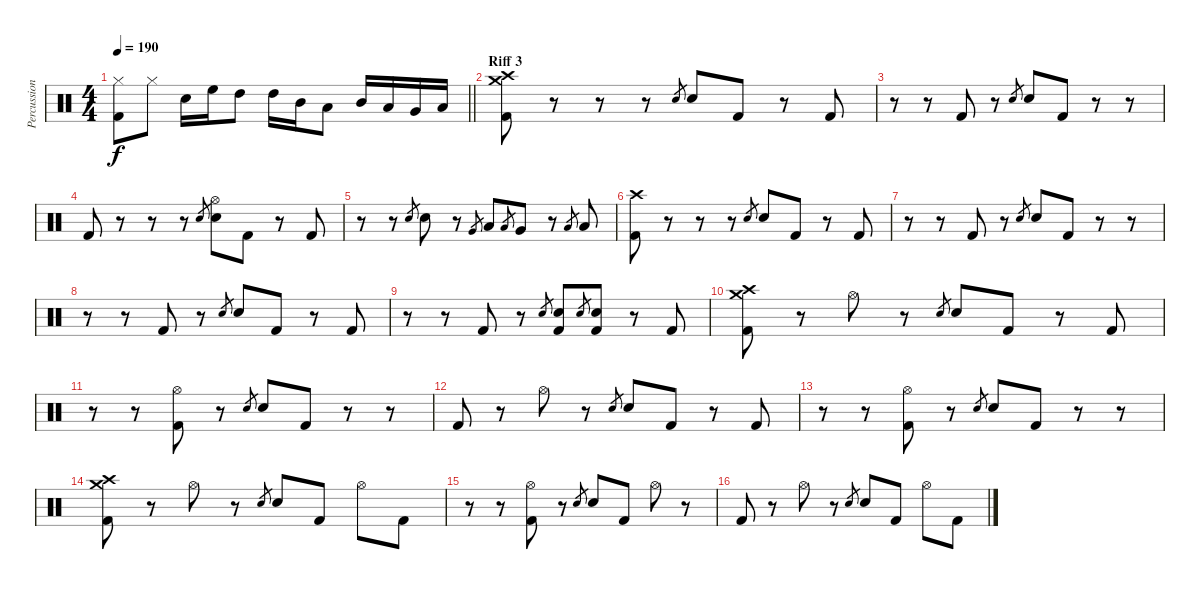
\track ("Percussion" "Percussion") {instrument percussion}
\staff {score}
\articulation defaults
\ts (4 4)
\tempo 190
\clef neutral
\barLineRight lightlight
\ks c
("Hi-Hat (closed)" "Kick (hit) 2").8{dy f} "Hi-Hat (closed)".8 "Electric Snare (hit)".16 "High Floor Tom (hit)".16 "High Tom (hit)".8 "High Tom (hit)".16 "Mid Tom (hit)".16 "Low Tom (hit)".8 "Mid Tom (hit)".16 "Low Tom (hit)".16 "Very Low Tom (hit)".16 "Low Floor Tom (hit)".16 |
\section ("" "Riff 3")
("Crash medium (hit)" "Crash high (hit)" "Kick (hit) 2").8 r.8 r.8 r.8 "Electric Snare (hit)".8{gr} "Electric Snare (hit)".8 "Kick (hit) 2".8 r.8 "Kick (hit) 2".8 |
r.8 r.8 "Kick (hit) 2".8 r.8 "Electric Snare (hit)".8{gr} "Electric Snare (hit)".8 "Kick (hit) 2".8 r.8 r.8 |
"Kick (hit) 2".8 r.8 r.8 r.8 "Electric Snare (hit)".8{gr} ("Hi-Hat (open)" "Electric Snare (hit)").8 "Kick (hit) 2".8 r.8 "Kick (hit) 2".8 |
r.8 r.8 "Electric Snare (hit)".8{gr} "Electric Snare (hit)".8 r.8 "Very Low Tom (hit)".8{gr} "Low Tom (hit)".8 "Low Floor Tom (hit)".8{gr} "Very Low Tom (hit)".8 r.8 "Low Floor Tom (hit)".8{gr} "Low Floor Tom (hit)".8 |
("Crash high (hit)" "Kick (hit) 2").8 r.8 r.8 r.8 "Electric Snare (hit)".8{gr} "Electric Snare (hit)".8 "Kick (hit) 2".8 r.8 "Kick (hit) 2".8 |
r.8 r.8 "Kick (hit) 2".8 r.8 "Electric Snare (hit)".8{gr} "Electric Snare (hit)".8 "Kick (hit) 2".8 r.8 r.8 |
r.8 r.8 "Kick (hit) 2".8 r.8 "Electric Snare (hit)".8{gr} "Electric Snare (hit)".8 "Kick (hit) 2".8 r.8 "Kick (hit) 2".8 |
r.8 r.8 "Kick (hit) 2".8 r.8 "Electric Snare (hit)".8{gr} ("Electric Snare (hit)" "Kick (hit) 2").8 "Electric Snare (hit)".8{gr} ("Electric Snare (hit)" "Kick (hit) 2").8 r.8 "Kick (hit) 2".8 |
("Crash medium (hit)" "Crash high (hit)" "Kick (hit) 2").8 r.8 "Hi-Hat (open)".8 r.8 "Electric Snare (hit)".8{gr} "Electric Snare (hit)".8 "Kick (hit) 2".8 r.8 "Kick (hit) 2".8 |
r.8 r.8 ("Hi-Hat (open)" "Kick (hit) 2").8 r.8 "Electric Snare (hit)".8{gr} "Electric Snare (hit)".8 "Kick (hit) 2".8 r.8 r.8 |
"Kick (hit) 2".8 r.8 "Hi-Hat (open)".8 r.8 "Electric Snare (hit)".8{gr} "Electric Snare (hit)".8 "Kick (hit) 2".8 r.8 "Kick (hit) 2".8 |
r.8 r.8 ("Hi-Hat (open)" "Kick (hit) 2").8 r.8 "Electric Snare (hit)".8{gr} "Electric Snare (hit)".8 "Kick (hit) 2".8 r.8 r.8 |
("Crash medium (hit)" "Crash high (hit)" "Kick (hit) 2").8 r.8 "Hi-Hat (open)".8 r.8 "Electric Snare (hit)".8{gr} "Electric Snare (hit)".8 "Kick (hit) 2".8 "Hi-Hat (open)".8 "Kick (hit) 2".8 |
r.8 r.8 ("Hi-Hat (open)" "Kick (hit) 2").8 r.8 "Electric Snare (hit)".8{gr} "Electric Snare (hit)".8 "Kick (hit) 2".8 "Hi-Hat (open)".8 r.8 |
"Kick (hit) 2".8 r.8 "Hi-Hat (open)".8 r.8 "Electric Snare (hit)".8{gr} "Electric Snare (hit)".8 "Kick (hit) 2".8 "Hi-Hat (open)".8 "Kick (hit) 2".8
